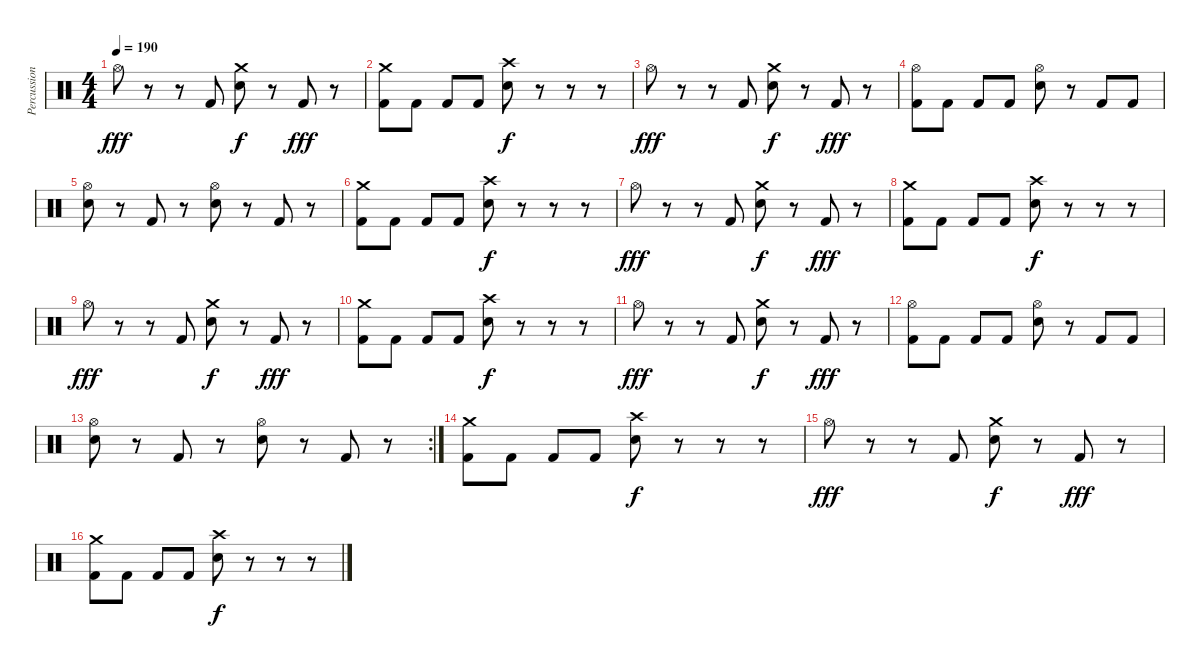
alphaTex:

\track ("Percussion" "Percussion") {instrument percussion}
\staff {score}
\articulation defaults
\ts (4 4)
\tempo 190
\clef neutral
\ks c "Hi-Hat (open)".8{dy fff}
r.8 r.8 "Kick (hit) 2".8 ("Crash medium (hit)" "Electric Snare (hit)").8{dy f} r.8 "Kick (hit) 2".8{dy fff} r.8 |
("Crash medium (hit)" "Kick (hit) 2").8 "Kick (hit) 2".8 "Kick (hit) 2".8 "Kick (hit) 2".8 ("Crash high (hit)" "Electric Snare (hit)").8{dy f} r.8 r.8 r.8 |
"Hi-Hat (open)".8{dy fff} r.8 r.8 "Kick (hit) 2".8 ("Crash medium (hit)" "Electric Snare (hit)").8{dy f} r.8 "Kick (hit) 2".8{dy fff} r.8 |
("Hi-Hat (open)" "Kick (hit) 2").8 "Kick (hit) 2".8 "Kick (hit) 2".8 "Kick (hit) 2".8 ("Hi-Hat (open)" "Electric Snare (hit)").8 r.8 "Kick (hit) 2".8 "Kick (hit) 2".8 |
("Hi-Hat (open)" "Electric Snare (hit)").8 r.8 "Kick (hit) 2".8 r.8 ("Hi-Hat (open)" "Electric Snare (hit)").8 r.8 "Kick (hit) 2".8 r.8 |
("Crash medium (hit)" "Kick (hit) 2").8 "Kick (hit) 2".8 "Kick (hit) 2".8 "Kick (hit) 2".8 ("Crash high (hit)" "Electric Snare (hit)").8{dy f} r.8 r.8 r.8 |
"Hi-Hat (open)".8{dy fff} r.8 r.8 "Kick (hit) 2".8 ("Crash medium (hit)" "Electric Snare (hit)").8{dy f} r.8 "Kick (hit) 2".8{dy fff} r.8 |
("Crash medium (hit)" "Kick (hit) 2").8 "Kick (hit) 2".8 "Kick (hit) 2".8 "Kick (hit) 2".8 ("Crash high (hit)" "Electric Snare (hit)").8{dy f} r.8 r.8 r.8 |
"Hi-Hat (open)".8{dy fff} r.8 r.8 "Kick (hit) 2".8 ("Crash medium (hit)" "Electric Snare (hit)").8{dy f} r.8 "Kick (hit) 2".8{dy fff} r.8 |
("Crash medium (hit)" "Kick (hit) 2").8 "Kick (hit) 2".8 "Kick (hit) 2".8 "Kick (hit) 2".8 ("Crash high (hit)" "Electric Snare (hit)").8{dy f} r.8 r.8 r.8 |
"Hi-Hat (open)".8{dy fff} r.8 r.8 "Kick (hit) 2".8 ("Crash medium (hit)" "Electric Snare (hit)").8{dy f} r.8 "Kick (hit) 2".8{dy fff} r.8 |
("Hi-Hat (open)" "Kick (hit) 2").8 "Kick (hit) 2".8 "Kick (hit) 2".8 "Kick (hit) 2".8 ("Hi-Hat (open)" "Electric Snare (hit)").8 r.8 "Kick (hit) 2".8 "Kick (hit) 2".8 |
\rc 2
("Hi-Hat (open)" "Electric Snare (hit)").8 r.8 "Kick (hit) 2".8 r.8 ("Hi-Hat (open)" "Electric Snare (hit)").8 r.8 "Kick (hit) 2".8 r.8 |
("Crash medium (hit)" "Kick (hit) 2").8 "Kick (hit) 2".8 "Kick (hit) 2".8 "Kick (hit) 2".8 ("Crash high (hit)" "Electric Snare (hit)").8{dy f} r.8 r.8 r.8 |
"Hi-Hat (open)".8{dy fff} r.8 r.8 "Kick (hit) 2".8 ("Crash medium (hit)" "Electric Snare (hit)").8{dy f} r.8 "Kick (hit) 2".8{dy fff} r.8 |
("Crash medium (hit)" "Kick (hit) 2").8 "Kick (hit) 2".8 "Kick (hit) 2".8 "Kick (hit) 2".8 ("Crash high (hit)" "Electric Snare (hit)").8{dy f} r.8 r.8 r.8
